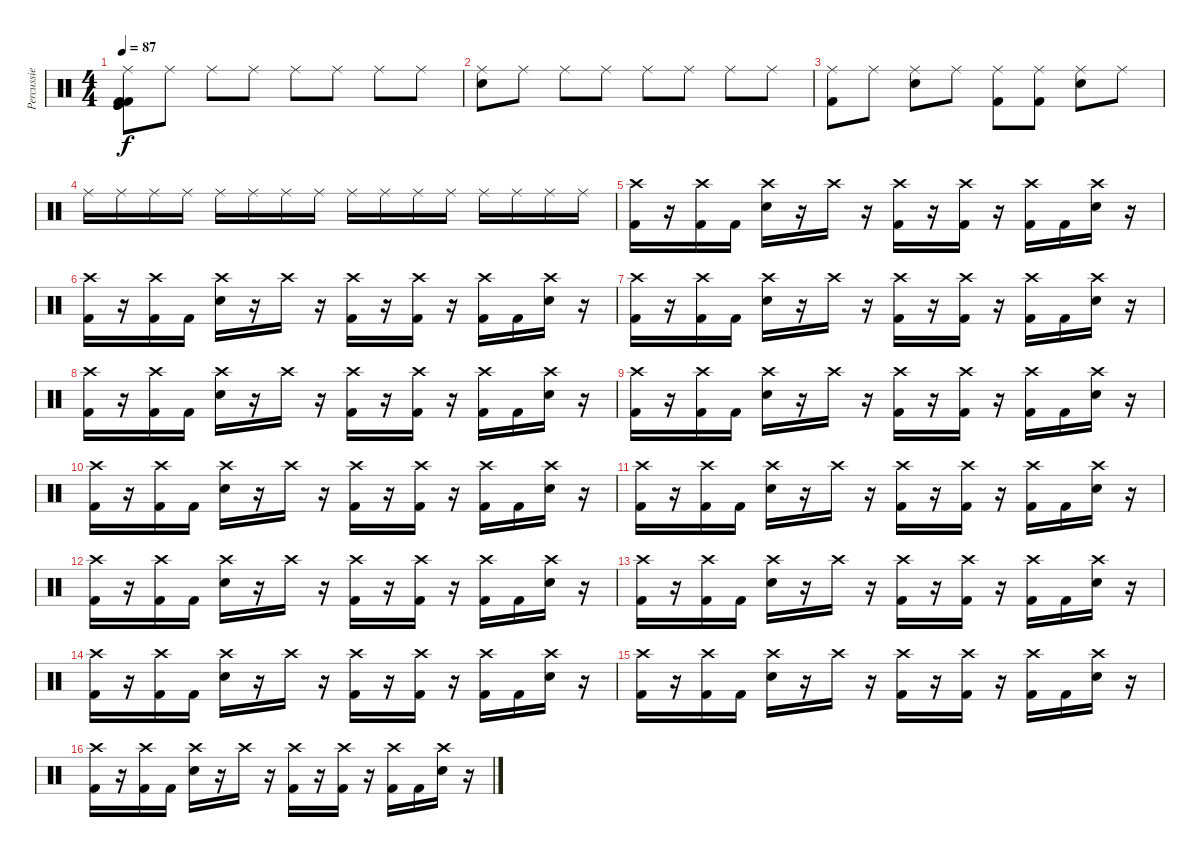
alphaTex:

\track ("Percussie" "Percussie") {instrument percussion}
\staff {score}
\articulation defaults
\ts (4 4)
\tempo 87
\clef neutral
\ks c
("Ride (middle)" "Kick (hit) 2" "Kick (hit) 2" "Kick (hit)" "Kick (hit)").8{dy f} "Ride (middle)".8 "Ride (middle)".8 "Ride (middle)".8 "Ride (middle)".8 "Ride (middle)".8 "Ride (middle)".8 "Ride (middle)".8 |
("Ride (middle)" "Snare (hit) 2").8 "Ride (middle)".8 "Ride (middle)".8 "Ride (middle)".8 "Ride (middle)".8 "Ride (middle)".8 "Ride (middle)".8 "Ride (middle)".8 |
("Kick (hit) 2" "Ride (middle)").8 "Ride (middle)".8 ("Snare (hit) 2" "Ride (middle)").8 "Ride (middle)".8 ("Kick (hit) 2" "Ride (middle)").8 ("Kick (hit) 2" "Ride (middle)").8 ("Snare (hit) 2" "Ride (middle)").8 "Ride (middle)".8 |
"Ride (middle)".16 "Ride (middle)".16 "Ride (middle)".16 "Ride (middle)".16 "Ride (middle)".16 "Ride (middle)".16 "Ride (middle)".16 "Ride (middle)".16 "Ride (middle)".16 "Ride (middle)".16 "Ride (middle)".16 "Ride (middle)".16 "Ride (middle)".16 "Ride (middle)".16 "Ride (middle)".16 "Ride (middle)".16 |
("Kick (hit) 2" "Crash high (hit)").16 r.16 ("Kick (hit) 2" "Crash high (hit)").16 "Kick (hit) 2".16 ("Snare (hit) 2" "Crash high (hit)").16 r.16 "Crash high (hit)".16 r.16 ("Kick (hit) 2" "Crash high (hit)").16 r.16 ("Kick (hit) 2" "Crash high (hit)").16 r.16 ("Kick (hit) 2" "Crash high (hit)").16 "Kick (hit) 2".16 ("Snare (hit) 2" "Crash high (hit)").16 r.16 |
("Kick (hit) 2" "Crash high (hit)").16 r.16 ("Kick (hit) 2" "Crash high (hit)").16 "Kick (hit) 2".16 ("Snare (hit) 2" "Crash high (hit)").16 r.16 "Crash high (hit)".16 r.16 ("Kick (hit) 2" "Crash high (hit)").16 r.16 ("Kick (hit) 2" "Crash high (hit)").16 r.16 ("Kick (hit) 2" "Crash high (hit)").16 "Kick (hit) 2".16 ("Snare (hit) 2" "Crash high (hit)").16 r.16 |
("Kick (hit) 2" "Crash high (hit)").16 r.16 ("Kick (hit) 2" "Crash high (hit)").16 "Kick (hit) 2".16 ("Snare (hit) 2" "Crash high (hit)").16 r.16 "Crash high (hit)".16 r.16 ("Kick (hit) 2" "Crash high (hit)").16 r.16 ("Kick (hit) 2" "Crash high (hit)").16 r.16 ("Kick (hit) 2" "Crash high (hit)").16 "Kick (hit) 2".16 ("Snare (hit) 2" "Crash high (hit)").16 r.16 |
("Kick (hit) 2" "Crash high (hit)").16 r.16 ("Kick (hit) 2" "Crash high (hit)").16 "Kick (hit) 2".16 ("Snare (hit) 2" "Crash high (hit)").16 r.16 "Crash high (hit)".16 r.16 ("Kick (hit) 2" "Crash high (hit)").16 r.16 ("Kick (hit) 2" "Crash high (hit)").16 r.16 ("Kick (hit) 2" "Crash high (hit)").16 "Kick (hit) 2".16 ("Snare (hit) 2" "Crash high (hit)").16 r.16 |
("Kick (hit) 2" "Crash high (hit)").16 r.16 ("Kick (hit) 2" "Crash high (hit)").16 "Kick (hit) 2".16 ("Snare (hit) 2" "Crash high (hit)").16 r.16 "Crash high (hit)".16 r.16 ("Kick (hit) 2" "Crash high (hit)").16 r.16 ("Kick (hit) 2" "Crash high (hit)").16 r.16 ("Kick (hit) 2" "Crash high (hit)").16 "Kick (hit) 2".16 ("Snare (hit) 2" "Crash high (hit)").16 r.16 |
("Kick (hit) 2" "Crash high (hit)").16 r.16 ("Kick (hit) 2" "Crash high (hit)").16 "Kick (hit) 2".16 ("Snare (hit) 2" "Crash high (hit)").16 r.16 "Crash high (hit)".16 r.16 ("Kick (hit) 2" "Crash high (hit)").16 r.16 ("Kick (hit) 2" "Crash high (hit)").16 r.16 ("Kick (hit) 2" "Crash high (hit)").16 "Kick (hit) 2".16 ("Snare (hit) 2" "Crash high (hit)").16 r.16 |
("Kick (hit) 2" "Crash high (hit)").16 r.16 ("Kick (hit) 2" "Crash high (hit)").16 "Kick (hit) 2".16 ("Snare (hit) 2" "Crash high (hit)").16 r.16 "Crash high (hit)".16 r.16 ("Kick (hit) 2" "Crash high (hit)").16 r.16 ("Kick (hit) 2" "Crash high (hit)").16 r.16 ("Kick (hit) 2" "Crash high (hit)").16 "Kick (hit) 2".16 ("Snare (hit) 2" "Crash high (hit)").16 r.16 |
("Kick (hit) 2" "Crash high (hit)").16 r.16 ("Kick (hit) 2" "Crash high (hit)").16 "Kick (hit) 2".16 ("Snare (hit) 2" "Crash high (hit)").16 r.16 "Crash high (hit)".16 r.16 ("Kick (hit) 2" "Crash high (hit)").16 r.16 ("Kick (hit) 2" "Crash high (hit)").16 r.16 ("Kick (hit) 2" "Crash high (hit)").16 "Kick (hit) 2".16 ("Snare (hit) 2" "Crash high (hit)").16 r.16 |
("Kick (hit) 2" "Crash high (hit)").16 r.16 ("Kick (hit) 2" "Crash high (hit)").16 "Kick (hit) 2".16 ("Snare (hit) 2" "Crash high (hit)").16 r.16 "Crash high (hit)".16 r.16 ("Kick (hit) 2" "Crash high (hit)").16 r.16 ("Kick (hit) 2" "Crash high (hit)").16 r.16 ("Kick (hit) 2" "Crash high (hit)").16 "Kick (hit) 2".16 ("Snare (hit) 2" "Crash high (hit)").16 r.16 |
("Kick (hit) 2" "Crash high (hit)").16 r.16 ("Kick (hit) 2" "Crash high (hit)").16 "Kick (hit) 2".16 ("Snare (hit) 2" "Crash high (hit)").16 r.16 "Crash high (hit)".16 r.16 ("Kick (hit) 2" "Crash high (hit)").16 r.16 ("Kick (hit) 2" "Crash high (hit)").16 r.16 ("Kick (hit) 2" "Crash high (hit)").16 "Kick (hit) 2".16 ("Snare (hit) 2" "Crash high (hit)").16 r.16 |
("Kick (hit) 2" "Crash high (hit)").16 r.16 ("Kick (hit) 2" "Crash high (hit)").16 "Kick (hit) 2".16 ("Snare (hit) 2" "Crash high (hit)").16 r.16 "Crash high (hit)".16 r.16 ("Kick (hit) 2" "Crash high (hit)").16 r.16 ("Kick (hit) 2" "Crash high (hit)").16 r.16 ("Kick (hit) 2" "Crash high (hit)").16 "Kick (hit) 2".16 ("Snare (hit) 2" "Crash high (hit)").16 r.16 |
("Kick (hit) 2" "Crash high (hit)").16 r.16 ("Kick (hit) 2" "Crash high (hit)").16 "Kick (hit) 2".16 ("Snare (hit) 2" "Crash high (hit)").16 r.16 "Crash high (hit)".16 r.16 ("Kick (hit) 2" "Crash high (hit)").16 r.16 ("Kick (hit) 2" "Crash high (hit)").16 r.16 ("Kick (hit) 2" "Crash high (hit)").16 "Kick (hit) 2".16 ("Snare (hit) 2" "Crash high (hit)").16 r.16
